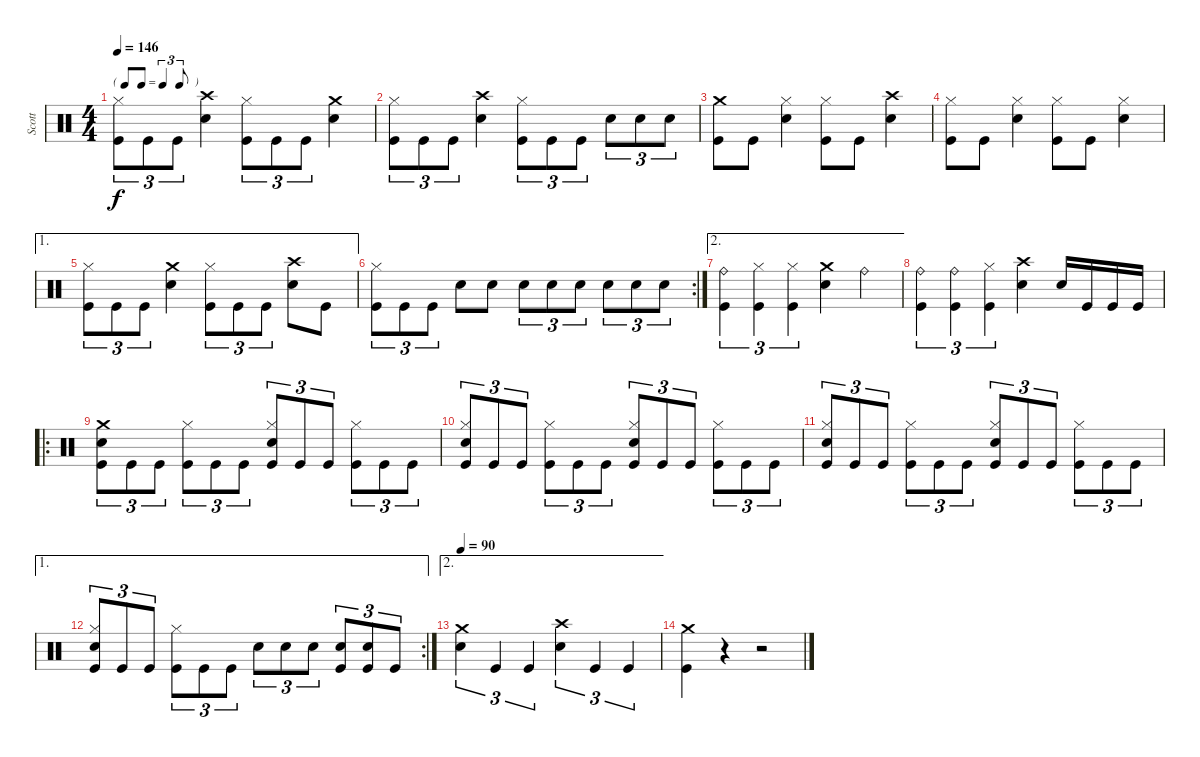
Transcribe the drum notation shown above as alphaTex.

\track ("Scott" "Scott") {instrument percussion}
\staff {score}
\articulation defaults
\ts (4 4)
\tf triplet8th
\tempo 146
\clef neutral
\ks c
("Kick (hit)" "Hi-Hat (closed)").8{tu (3 2) dy f} "Kick (hit)".8{tu (3 2)} "Kick (hit)".8{tu (3 2)} ("Snare (hit) 2" "Crash high (hit)").4 ("Kick (hit)" "Hi-Hat (closed)").8{tu (3 2)} "Kick (hit)".8{tu (3 2)} "Kick (hit)".8{tu (3 2)} ("Snare (hit) 2" "Crash medium (hit)").4 |
("Kick (hit)" "Hi-Hat (closed)").8{tu (3 2)} "Kick (hit)".8{tu (3 2)} "Kick (hit)".8{tu (3 2)} ("Snare (hit) 2" "Crash high (hit)").4 ("Kick (hit)" "Hi-Hat (closed)").8{tu (3 2)} "Kick (hit)".8{tu (3 2)} "Kick (hit)".8{tu (3 2)} "Snare (hit) 2".8{tu (3 2)} "Snare (hit) 2".8{tu (3 2)} "Snare (hit) 2".8{tu (3 2)} |
("Kick (hit)" "Crash medium (hit)").8 "Kick (hit)".8 ("Snare (hit) 2" "Hi-Hat (closed)").4 ("Kick (hit)" "Hi-Hat (closed)").8 "Kick (hit)".8 ("Snare (hit) 2" "Crash high (hit)").4 |
("Kick (hit)" "Hi-Hat (closed)").8 "Kick (hit)".8 ("Snare (hit) 2" "Hi-Hat (closed)").4 ("Kick (hit)" "Hi-Hat (closed)").8 "Kick (hit)".8 ("Snare (hit) 2" "Hi-Hat (closed)").4 |
\ae 1
("Kick (hit)" "Hi-Hat (closed)").8{tu (3 2)} "Kick (hit)".8{tu (3 2)} "Kick (hit)".8{tu (3 2)} ("Snare (hit) 2" "Crash medium (hit)").4 ("Kick (hit)" "Hi-Hat (closed)").8{tu (3 2)} "Kick (hit)".8{tu (3 2)} "Kick (hit)".8{tu (3 2)} ("Snare (hit) 2" "Crash high (hit)").8 "Kick (hit)".8 |
\rc 2
("Kick (hit)" "Hi-Hat (closed)").8{tu (3 2)} "Kick (hit)".8{tu (3 2)} "Kick (hit)".8{tu (3 2)} "Snare (hit) 2".8 "Snare (hit) 2".8 "Snare (hit) 2".8{tu (3 2)} "Snare (hit) 2".8{tu (3 2)} "Snare (hit) 2".8{tu (3 2)} "Snare (hit) 2".8{tu (3 2)} "Snare (hit) 2".8{tu (3 2)} "Snare (hit) 2".8{tu (3 2)} |
\ae 2
("Kick (hit)" "Ride (bell)").4{tu (3 2)} ("Kick (hit)" "Hi-Hat (closed)").4{tu (3 2)} ("Kick (hit)" "Hi-Hat (closed)").4{tu (3 2)} ("Snare (hit) 2" "Crash medium (hit)").4 "Ride (bell)".4 |
("Kick (hit)" "Ride (bell)").4{tu (3 2)} ("Kick (hit)" "Ride (bell)").4{tu (3 2)} ("Kick (hit)" "Hi-Hat (closed)").4{tu (3 2)} ("Snare (hit) 2" "Crash high (hit)").4 "Snare (hit) 2".16 "Kick (hit)".16 "Kick (hit)".16 "Kick (hit)".16 |
\ro
("Kick (hit)" "Snare (hit) 2" "Crash medium (hit)").8{tu (3 2)} "Kick (hit)".8{tu (3 2)} "Kick (hit)".8{tu (3 2)} ("Kick (hit)" "Hi-Hat (closed)").8{tu (3 2)} "Kick (hit)".8{tu (3 2)} "Kick (hit)".8{tu (3 2)} ("Kick (hit)" "Snare (hit) 2" "Hi-Hat (closed)").8{tu (3 2)} "Kick (hit)".8{tu (3 2)} "Kick (hit)".8{tu (3 2)} ("Kick (hit)" "Hi-Hat (closed)").8{tu (3 2)} "Kick (hit)".8{tu (3 2)} "Kick (hit)".8{tu (3 2)} |
("Kick (hit)" "Snare (hit) 2" "Hi-Hat (closed)").8{tu (3 2)} "Kick (hit)".8{tu (3 2)} "Kick (hit)".8{tu (3 2)} ("Kick (hit)" "Hi-Hat (closed)").8{tu (3 2)} "Kick (hit)".8{tu (3 2)} "Kick (hit)".8{tu (3 2)} ("Kick (hit)" "Snare (hit) 2" "Hi-Hat (closed)").8{tu (3 2)} "Kick (hit)".8{tu (3 2)} "Kick (hit)".8{tu (3 2)} ("Kick (hit)" "Hi-Hat (closed)").8{tu (3 2)} "Kick (hit)".8{tu (3 2)} "Kick (hit)".8{tu (3 2)} |
("Kick (hit)" "Snare (hit) 2" "Hi-Hat (closed)").8{tu (3 2)} "Kick (hit)".8{tu (3 2)} "Kick (hit)".8{tu (3 2)} ("Kick (hit)" "Hi-Hat (closed)").8{tu (3 2)} "Kick (hit)".8{tu (3 2)} "Kick (hit)".8{tu (3 2)} ("Kick (hit)" "Snare (hit) 2" "Hi-Hat (closed)").8{tu (3 2)} "Kick (hit)".8{tu (3 2)} "Kick (hit)".8{tu (3 2)} ("Kick (hit)" "Hi-Hat (closed)").8{tu (3 2)} "Kick (hit)".8{tu (3 2)} "Kick (hit)".8{tu (3 2)} |
\ae 1
\rc 2
("Kick (hit)" "Snare (hit) 2" "Hi-Hat (closed)").8{tu (3 2)} "Kick (hit)".8{tu (3 2)} "Kick (hit)".8{tu (3 2)} ("Kick (hit)" "Hi-Hat (closed)").8{tu (3 2)} "Kick (hit)".8{tu (3 2)} "Kick (hit)".8{tu (3 2)} "Snare (hit) 2".8{tu (3 2)} "Snare (hit) 2".8{tu (3 2)} "Snare (hit) 2".8{tu (3 2)} ("Kick (hit)" "Snare (hit) 2").8{tu (3 2)} ("Kick (hit)" "Snare (hit) 2").8{tu (3 2)} "Kick (hit)".8{tu (3 2)} |
\ae 2
\tempo 90
("Snare (hit) 2" "Crash medium (hit)").4{tu (3 2)} "Kick (hit)".4{tu (3 2)} "Kick (hit)".4{tu (3 2)} ("Snare (hit) 2" "Crash high (hit)").4{tu (3 2)} "Kick (hit)".4{tu (3 2)} "Kick (hit)".4{tu (3 2)} |
("Kick (hit)" "Crash medium (hit)").4 r.4 r.2
